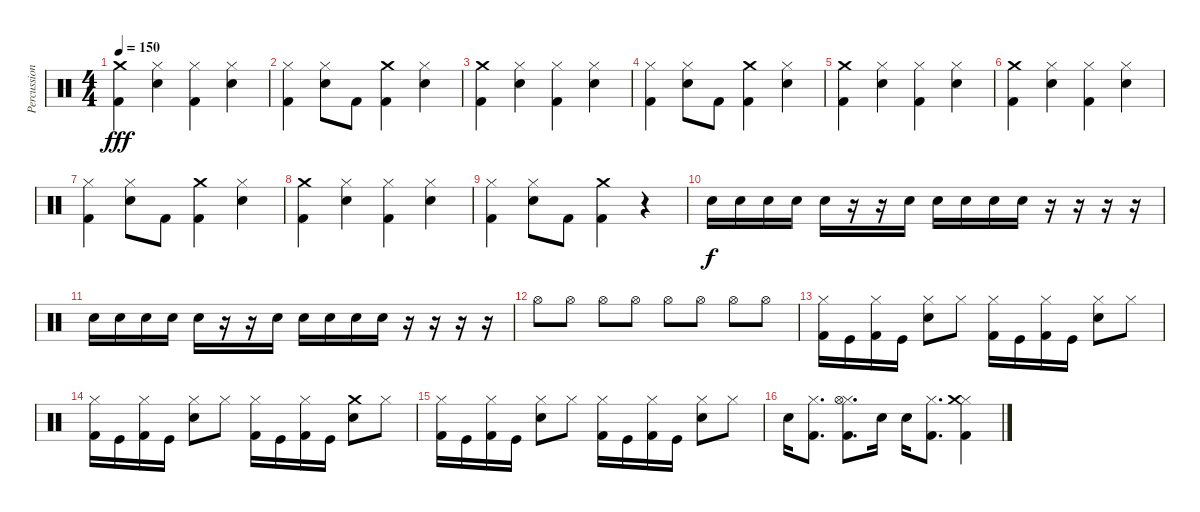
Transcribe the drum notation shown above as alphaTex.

\track ("Percussion" "Percussion") {instrument percussion}
\staff {score}
\articulation defaults
\ts (4 4)
\tempo 150
\clef neutral
\ks c
("Kick (hit) 2" "Crash medium (hit)").4{dy fff} ("Hi-Hat (closed)" "Snare (hit) 2").4 ("Hi-Hat (closed)" "Kick (hit) 2").4 ("Snare (hit) 2" "Hi-Hat (closed)").4 |
("Hi-Hat (closed)" "Kick (hit) 2").4 ("Snare (hit) 2" "Hi-Hat (closed)").8 "Kick (hit) 2".8 ("Kick (hit) 2" "Crash medium (hit)").4 ("Hi-Hat (closed)" "Snare (hit) 2").4 |
("Kick (hit) 2" "Crash medium (hit)").4 ("Hi-Hat (closed)" "Snare (hit) 2").4 ("Hi-Hat (closed)" "Kick (hit) 2").4 ("Snare (hit) 2" "Hi-Hat (closed)").4 |
("Hi-Hat (closed)" "Kick (hit) 2").4 ("Snare (hit) 2" "Hi-Hat (closed)").8 "Kick (hit) 2".8 ("Kick (hit) 2" "Crash medium (hit)").4 ("Hi-Hat (closed)" "Snare (hit) 2").4 |
("Kick (hit) 2" "Crash medium (hit)").4 ("Hi-Hat (closed)" "Snare (hit) 2").4 ("Hi-Hat (closed)" "Kick (hit) 2").4 ("Snare (hit) 2" "Hi-Hat (closed)").4 |
("Kick (hit) 2" "Crash medium (hit)").4 ("Hi-Hat (closed)" "Snare (hit) 2").4 ("Hi-Hat (closed)" "Kick (hit) 2").4 ("Snare (hit) 2" "Hi-Hat (closed)").4 |
("Hi-Hat (closed)" "Kick (hit) 2").4 ("Snare (hit) 2" "Hi-Hat (closed)").8 "Kick (hit) 2".8 ("Kick (hit) 2" "Crash medium (hit)").4 ("Hi-Hat (closed)" "Snare (hit) 2").4 |
("Kick (hit) 2" "Crash medium (hit)").4 ("Hi-Hat (closed)" "Snare (hit) 2").4 ("Hi-Hat (closed)" "Kick (hit) 2").4 ("Snare (hit) 2" "Hi-Hat (closed)").4 |
("Hi-Hat (closed)" "Kick (hit) 2").4 ("Snare (hit) 2" "Hi-Hat (closed)").8 "Kick (hit) 2".8 ("Kick (hit) 2" "Crash medium (hit)").4 r.4 |
"Snare (hit) 2".16{dy f} "Snare (hit) 2".16 "Snare (hit) 2".16 "Snare (hit) 2".16 "Snare (hit) 2".16 r.16 r.16 "Snare (hit) 2".16 "Snare (hit) 2".16 "Snare (hit) 2".16 "Snare (hit) 2".16 "Snare (hit) 2".16 r.16 r.16 r.16 r.16 |
"Snare (hit) 2".16 "Snare (hit) 2".16 "Snare (hit) 2".16 "Snare (hit) 2".16 "Snare (hit) 2".16 r.16 r.16 "Snare (hit) 2".16 "Snare (hit) 2".16 "Snare (hit) 2".16 "Snare (hit) 2".16 "Snare (hit) 2".16 r.16 r.16 r.16 r.16 |
"Hi-Hat (open)".8 "Hi-Hat (open)".8 "Hi-Hat (open)".8 "Hi-Hat (open)".8 "Hi-Hat (open)".8 "Hi-Hat (open)".8 "Hi-Hat (open)".8 "Hi-Hat (open)".8 |
("Hi-Hat (closed)" "Kick (hit) 2").16 "Kick (hit)".16 ("Hi-Hat (closed)" "Kick (hit) 2").16 "Kick (hit)".16 ("Snare (hit) 2" "Hi-Hat (closed)").8 "Hi-Hat (closed)".8 ("Hi-Hat (closed)" "Kick (hit) 2").16 "Kick (hit)".16 ("Hi-Hat (closed)" "Kick (hit) 2").16 "Kick (hit)".16 ("Snare (hit) 2" "Hi-Hat (closed)").8 "Hi-Hat (closed)".8 |
("Hi-Hat (closed)" "Kick (hit) 2").16 "Kick (hit)".16 ("Hi-Hat (closed)" "Kick (hit) 2").16 "Kick (hit)".16 ("Snare (hit) 2" "Hi-Hat (closed)").8 "Hi-Hat (closed)".8 ("Hi-Hat (closed)" "Kick (hit) 2").16 "Kick (hit)".16 ("Hi-Hat (closed)" "Kick (hit) 2").16 "Kick (hit)".16 ("Snare (hit) 2" "Crash medium (hit)").8 "Hi-Hat (closed)".8 |
("Hi-Hat (closed)" "Kick (hit) 2").16 "Kick (hit)".16 ("Hi-Hat (closed)" "Kick (hit) 2").16 "Kick (hit)".16 ("Snare (hit) 2" "Hi-Hat (closed)").8 "Hi-Hat (closed)".8 ("Hi-Hat (closed)" "Kick (hit) 2").16 "Kick (hit)".16 ("Hi-Hat (closed)" "Kick (hit) 2").16 "Kick (hit)".16 ("Snare (hit) 2" "Hi-Hat (closed)").8 "Hi-Hat (closed)".8 |
"Snare (hit) 2".16 ("Kick (hit) 2" "Hi-Hat (closed)").8{d} ("Kick (hit) 2" "Hi-Hat (closed)" "Hi-Hat (open)").8{d} "Snare (hit) 2".16 "Snare (hit) 2".16 ("Kick (hit) 2" "Hi-Hat (closed)").8{d} ("Hi-Hat (closed)" "Kick (hit) 2" "Crash medium (hit)").4
